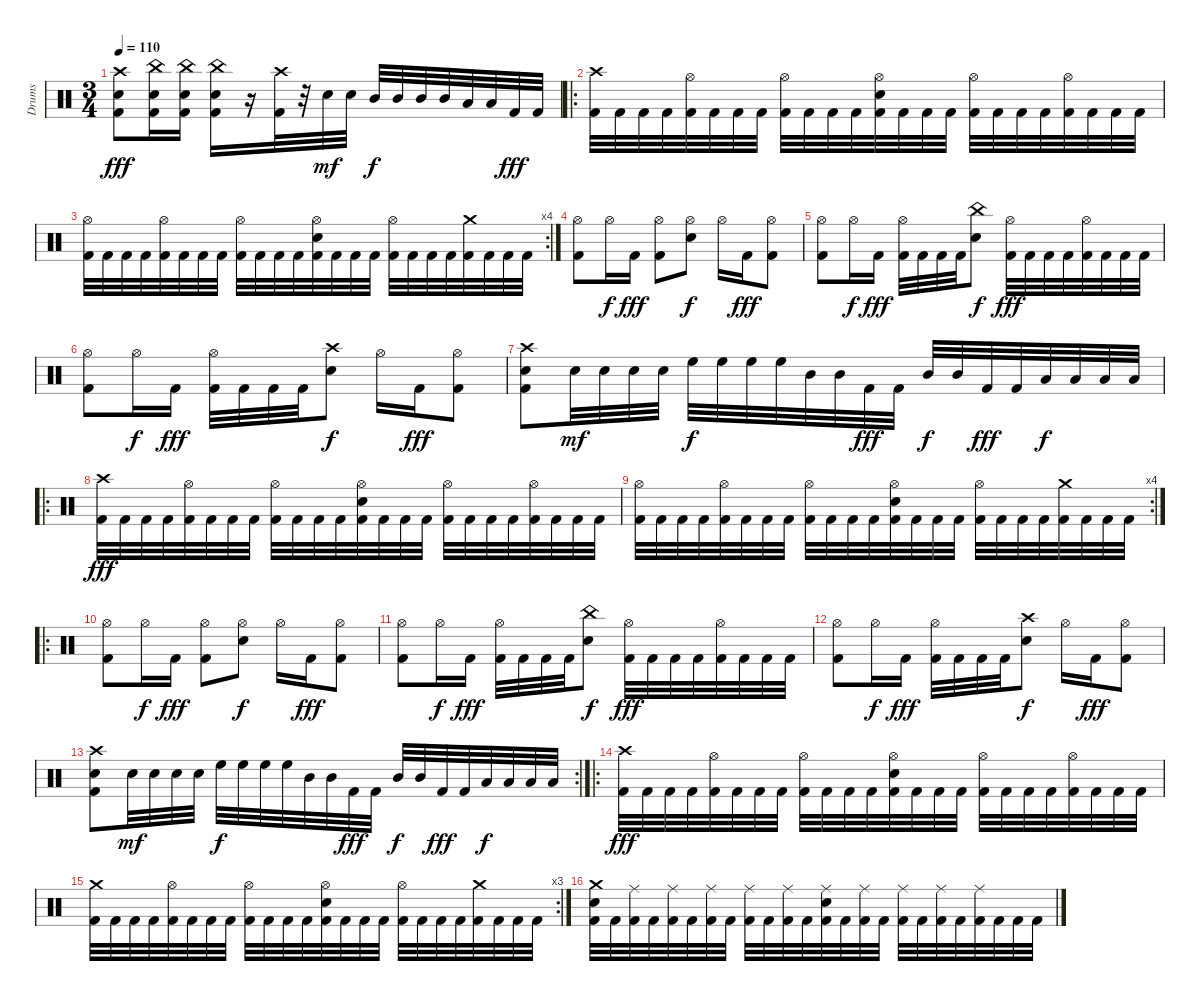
\track ("Drums" "Drums") {instrument percussion}
\staff {score}
\articulation defaults
\ts (3 4)
\tempo 110
\clef neutral
\ks c
("Crash high (hit)" "Electric Snare (hit)" "Kick (hit) 2").8{dy fff} ("China (hit)" "Electric Snare (hit)" "Kick (hit) 2").16 ("China (hit)" "Electric Snare (hit)" "Kick (hit) 2").16 ("China (hit)" "Electric Snare (hit)" "Kick (hit) 2").16 r.16 ("Crash high (hit)" "Kick (hit) 2").32 r.32 "Electric Snare (hit)".32{dy mf} "Electric Snare (hit)".32 "Mid Tom (hit)".32{dy f} "Mid Tom (hit)".32 "Mid Tom (hit)".32 "Mid Tom (hit)".32 "Low Tom (hit)".32 "Low Tom (hit)".32 "Kick (hit) 2".32{dy fff} "Kick (hit) 2".32 |
\ro
("Crash high (hit)" "Kick (hit) 2").32 "Kick (hit) 2".32 "Kick (hit) 2".32 "Kick (hit) 2".32 ("Hi-Hat (open)" "Kick (hit) 2").32 "Kick (hit) 2".32 "Kick (hit) 2".32 "Kick (hit) 2".32 ("Hi-Hat (open)" "Kick (hit) 2").32 "Kick (hit) 2".32 "Kick (hit) 2".32 "Kick (hit) 2".32 ("Hi-Hat (open)" "Electric Snare (hit)" "Kick (hit) 2").32 "Kick (hit) 2".32 "Kick (hit) 2".32 "Kick (hit) 2".32 ("Hi-Hat (open)" "Kick (hit) 2").32 "Kick (hit) 2".32 "Kick (hit) 2".32 "Kick (hit) 2".32 ("Hi-Hat (open)" "Kick (hit) 2").32 "Kick (hit) 2".32 "Kick (hit) 2".32 "Kick (hit) 2".32 |
\rc 4
("Hi-Hat (open)" "Kick (hit) 2").32 "Kick (hit) 2".32 "Kick (hit) 2".32 "Kick (hit) 2".32 ("Hi-Hat (open)" "Kick (hit) 2").32 "Kick (hit) 2".32 "Kick (hit) 2".32 "Kick (hit) 2".32 ("Hi-Hat (open)" "Kick (hit) 2").32 "Kick (hit) 2".32 "Kick (hit) 2".32 "Kick (hit) 2".32 ("Hi-Hat (open)" "Electric Snare (hit)" "Kick (hit) 2").32 "Kick (hit) 2".32 "Kick (hit) 2".32 "Kick (hit) 2".32 ("Hi-Hat (open)" "Kick (hit) 2").32 "Kick (hit) 2".32 "Kick (hit) 2".32 "Kick (hit) 2".32 ("Crash medium (hit)" "Kick (hit) 2").32 "Kick (hit) 2".32 "Kick (hit) 2".32 "Kick (hit) 2".32 |
("Hi-Hat (open)" "Kick (hit) 2").8 "Hi-Hat (open)".16{dy f} "Kick (hit) 2".16{dy fff} ("Hi-Hat (open)" "Kick (hit) 2").8 ("Hi-Hat (open)" "Electric Snare (hit)").8{dy f} "Hi-Hat (open)".16 "Kick (hit) 2".16{dy fff} ("Hi-Hat (open)" "Kick (hit) 2").8 |
("Hi-Hat (open)" "Kick (hit) 2").8 "Hi-Hat (open)".16{dy f} "Kick (hit) 2".16{dy fff} ("Hi-Hat (open)" "Kick (hit) 2").32 "Kick (hit) 2".32 "Kick (hit) 2".32 "Kick (hit) 2".32 ("China (hit)" "Electric Snare (hit)").8{dy f} ("Hi-Hat (open)" "Kick (hit) 2").32{dy fff} "Kick (hit) 2".32 "Kick (hit) 2".32 "Kick (hit) 2".32 ("Hi-Hat (open)" "Kick (hit) 2").32 "Kick (hit) 2".32 "Kick (hit) 2".32 "Kick (hit) 2".32 |
("Hi-Hat (open)" "Kick (hit) 2").8 "Hi-Hat (open)".16{dy f} "Kick (hit) 2".16{dy fff} ("Hi-Hat (open)" "Kick (hit) 2").32 "Kick (hit) 2".32 "Kick (hit) 2".32 "Kick (hit) 2".32 ("Crash high (hit)" "Electric Snare (hit)").8{dy f} "Hi-Hat (open)".16 "Kick (hit) 2".16{dy fff} ("Hi-Hat (open)" "Kick (hit) 2").8 |
("Crash high (hit)" "Electric Snare (hit)" "Kick (hit) 2").8 "Electric Snare (hit)".32{dy mf} "Electric Snare (hit)".32 "Electric Snare (hit)".32 "Electric Snare (hit)".32 "High Floor Tom (hit)".32{dy f} "High Floor Tom (hit)".32 "High Floor Tom (hit)".32 "High Floor Tom (hit)".32 "Mid Tom (hit)".32 "Mid Tom (hit)".32 "Kick (hit) 2".32{dy fff} "Kick (hit) 2".32 "Mid Tom (hit)".32{dy f} "Mid Tom (hit)".32 "Kick (hit) 2".32{dy fff} "Kick (hit) 2".32 "Low Tom (hit)".32{dy f} "Low Tom (hit)".32 "Low Tom (hit)".32 "Low Tom (hit)".32 |
\ro
("Crash high (hit)" "Kick (hit) 2").32{dy fff} "Kick (hit) 2".32 "Kick (hit) 2".32 "Kick (hit) 2".32 ("Hi-Hat (open)" "Kick (hit) 2").32 "Kick (hit) 2".32 "Kick (hit) 2".32 "Kick (hit) 2".32 ("Hi-Hat (open)" "Kick (hit) 2").32 "Kick (hit) 2".32 "Kick (hit) 2".32 "Kick (hit) 2".32 ("Hi-Hat (open)" "Electric Snare (hit)" "Kick (hit) 2").32 "Kick (hit) 2".32 "Kick (hit) 2".32 "Kick (hit) 2".32 ("Hi-Hat (open)" "Kick (hit) 2").32 "Kick (hit) 2".32 "Kick (hit) 2".32 "Kick (hit) 2".32 ("Hi-Hat (open)" "Kick (hit) 2").32 "Kick (hit) 2".32 "Kick (hit) 2".32 "Kick (hit) 2".32 |
\rc 4
("Hi-Hat (open)" "Kick (hit) 2").32 "Kick (hit) 2".32 "Kick (hit) 2".32 "Kick (hit) 2".32 ("Hi-Hat (open)" "Kick (hit) 2").32 "Kick (hit) 2".32 "Kick (hit) 2".32 "Kick (hit) 2".32 ("Hi-Hat (open)" "Kick (hit) 2").32 "Kick (hit) 2".32 "Kick (hit) 2".32 "Kick (hit) 2".32 ("Hi-Hat (open)" "Electric Snare (hit)" "Kick (hit) 2").32 "Kick (hit) 2".32 "Kick (hit) 2".32 "Kick (hit) 2".32 ("Hi-Hat (open)" "Kick (hit) 2").32 "Kick (hit) 2".32 "Kick (hit) 2".32 "Kick (hit) 2".32 ("Crash medium (hit)" "Kick (hit) 2").32 "Kick (hit) 2".32 "Kick (hit) 2".32 "Kick (hit) 2".32 |
\ro
("Hi-Hat (open)" "Kick (hit) 2").8 "Hi-Hat (open)".16{dy f} "Kick (hit) 2".16{dy fff} ("Hi-Hat (open)" "Kick (hit) 2").8 ("Hi-Hat (open)" "Electric Snare (hit)").8{dy f} "Hi-Hat (open)".16 "Kick (hit) 2".16{dy fff} ("Hi-Hat (open)" "Kick (hit) 2").8 |
("Hi-Hat (open)" "Kick (hit) 2").8 "Hi-Hat (open)".16{dy f} "Kick (hit) 2".16{dy fff} ("Hi-Hat (open)" "Kick (hit) 2").32 "Kick (hit) 2".32 "Kick (hit) 2".32 "Kick (hit) 2".32 ("China (hit)" "Electric Snare (hit)").8{dy f} ("Hi-Hat (open)" "Kick (hit) 2").32{dy fff} "Kick (hit) 2".32 "Kick (hit) 2".32 "Kick (hit) 2".32 ("Hi-Hat (open)" "Kick (hit) 2").32 "Kick (hit) 2".32 "Kick (hit) 2".32 "Kick (hit) 2".32 |
("Hi-Hat (open)" "Kick (hit) 2").8 "Hi-Hat (open)".16{dy f} "Kick (hit) 2".16{dy fff} ("Hi-Hat (open)" "Kick (hit) 2").32 "Kick (hit) 2".32 "Kick (hit) 2".32 "Kick (hit) 2".32 ("Crash high (hit)" "Electric Snare (hit)").8{dy f} "Hi-Hat (open)".16 "Kick (hit) 2".16{dy fff} ("Hi-Hat (open)" "Kick (hit) 2").8 |
\rc 2
("Crash high (hit)" "Electric Snare (hit)" "Kick (hit) 2").8 "Electric Snare (hit)".32{dy mf} "Electric Snare (hit)".32 "Electric Snare (hit)".32 "Electric Snare (hit)".32 "High Floor Tom (hit)".32{dy f} "High Floor Tom (hit)".32 "High Floor Tom (hit)".32 "High Floor Tom (hit)".32 "Mid Tom (hit)".32 "Mid Tom (hit)".32 "Kick (hit) 2".32{dy fff} "Kick (hit) 2".32 "Mid Tom (hit)".32{dy f} "Mid Tom (hit)".32 "Kick (hit) 2".32{dy fff} "Kick (hit) 2".32 "Low Tom (hit)".32{dy f} "Low Tom (hit)".32 "Low Tom (hit)".32 "Low Tom (hit)".32 |
\ro
("Crash high (hit)" "Kick (hit) 2").32{dy fff} "Kick (hit) 2".32 "Kick (hit) 2".32 "Kick (hit) 2".32 ("Hi-Hat (open)" "Kick (hit) 2").32 "Kick (hit) 2".32 "Kick (hit) 2".32 "Kick (hit) 2".32 ("Hi-Hat (open)" "Kick (hit) 2").32 "Kick (hit) 2".32 "Kick (hit) 2".32 "Kick (hit) 2".32 ("Hi-Hat (open)" "Electric Snare (hit)" "Kick (hit) 2").32 "Kick (hit) 2".32 "Kick (hit) 2".32 "Kick (hit) 2".32 ("Hi-Hat (open)" "Kick (hit) 2").32 "Kick (hit) 2".32 "Kick (hit) 2".32 "Kick (hit) 2".32 ("Hi-Hat (open)" "Kick (hit) 2").32 "Kick (hit) 2".32 "Kick (hit) 2".32 "Kick (hit) 2".32 |
\rc 3
("Crash medium (hit)" "Kick (hit) 2").32 "Kick (hit) 2".32 "Kick (hit) 2".32 "Kick (hit) 2".32 ("Hi-Hat (open)" "Kick (hit) 2").32 "Kick (hit) 2".32 "Kick (hit) 2".32 "Kick (hit) 2".32 ("Hi-Hat (open)" "Kick (hit) 2").32 "Kick (hit) 2".32 "Kick (hit) 2".32 "Kick (hit) 2".32 ("Hi-Hat (open)" "Electric Snare (hit)" "Kick (hit) 2").32 "Kick (hit) 2".32 "Kick (hit) 2".32 "Kick (hit) 2".32 ("Hi-Hat (open)" "Kick (hit) 2").32 "Kick (hit) 2".32 "Kick (hit) 2".32 "Kick (hit) 2".32 ("Crash medium (hit)" "Kick (hit) 2").32 "Kick (hit) 2".32 "Kick (hit) 2".32 "Kick (hit) 2".32 |
("Crash medium (hit)" "Electric Snare (hit)" "Kick (hit) 2").32 "Kick (hit) 2".32 ("Ride (middle)" "Kick (hit) 2").32 "Kick (hit) 2".32 ("Ride (middle)" "Kick (hit) 2").32 "Kick (hit) 2".32 ("Ride (middle)" "Kick (hit) 2").32 "Kick (hit) 2".32 ("Ride (middle)" "Kick (hit) 2").32 "Kick (hit) 2".32 ("Ride (middle)" "Kick (hit) 2").32 "Kick (hit) 2".32 ("Ride (middle)" "Electric Snare (hit)" "Kick (hit) 2").32 "Kick (hit) 2".32 ("Ride (middle)" "Kick (hit) 2").32 "Kick (hit) 2".32 ("Ride (middle)" "Kick (hit) 2").32 "Kick (hit) 2".32 ("Ride (middle)" "Kick (hit) 2").32 "Kick (hit) 2".32 ("Ride (middle)" "Kick (hit) 2").32 "Kick (hit) 2".32 "Kick (hit) 2".32 "Kick (hit) 2".32
